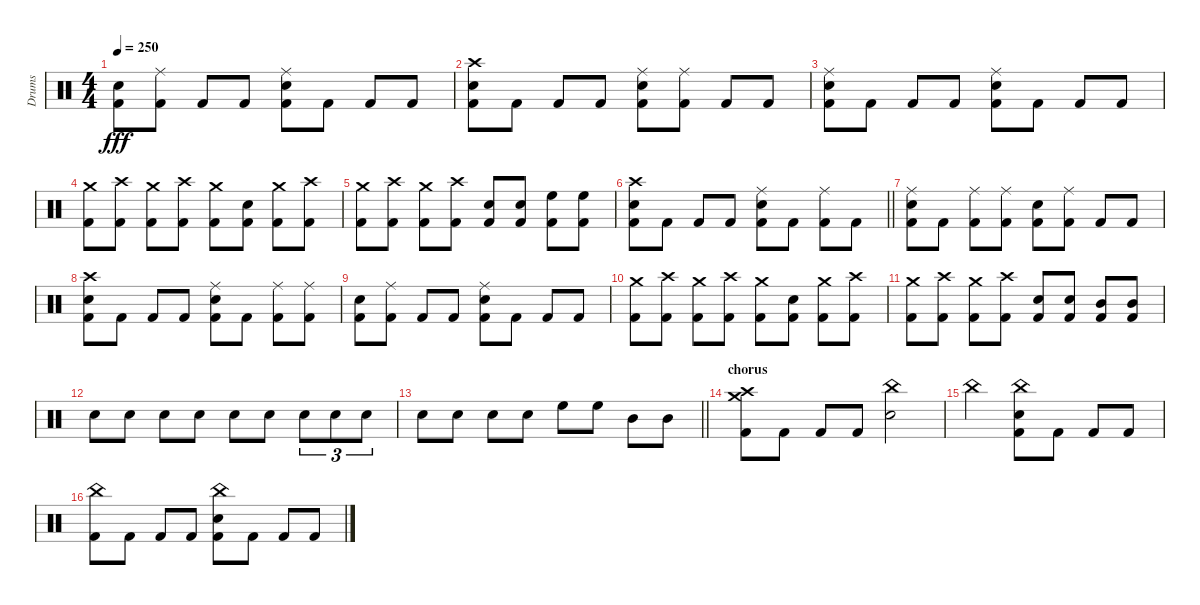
\track ("Drums" "Drums") {solo instrument percussion}
\staff {score}
\articulation defaults
\ts (4 4)
\tempo 250
\clef neutral
\ks c
("Snare (hit) 2" "Kick (hit) 2").8{dy fff} ("Ride (middle)" "Kick (hit) 2").8 "Kick (hit) 2".8 "Kick (hit) 2".8 ("Ride (middle)" "Snare (hit) 2" "Kick (hit) 2").8 "Kick (hit) 2".8 "Kick (hit) 2".8 "Kick (hit) 2".8 |
("Crash high (hit)" "Snare (hit) 2" "Kick (hit) 2").8 "Kick (hit) 2".8 "Kick (hit) 2".8 "Kick (hit) 2".8 ("Ride (middle)" "Snare (hit) 2" "Kick (hit) 2").8 ("Ride (middle)" "Kick (hit) 2").8 "Kick (hit) 2".8 "Kick (hit) 2".8 |
("Ride (middle)" "Snare (hit) 2" "Kick (hit) 2").8 "Kick (hit) 2".8 "Kick (hit) 2".8 "Kick (hit) 2".8 ("Ride (middle)" "Snare (hit) 2" "Kick (hit) 2").8 "Kick (hit) 2".8 "Kick (hit) 2".8 "Kick (hit) 2".8 |
("Crash medium (hit)" "Kick (hit) 2").8 ("Crash high (hit)" "Kick (hit) 2").8 ("Crash medium (hit)" "Kick (hit) 2").8 ("Crash high (hit)" "Kick (hit) 2").8 ("Crash medium (hit)" "Kick (hit) 2").8 ("Snare (hit) 2" "Kick (hit) 2").8 ("Crash medium (hit)" "Kick (hit) 2").8 ("Crash high (hit)" "Kick (hit) 2").8 |
("Crash medium (hit)" "Kick (hit) 2").8 ("Crash high (hit)" "Kick (hit) 2").8 ("Crash medium (hit)" "Kick (hit) 2").8 ("Crash high (hit)" "Kick (hit) 2").8 ("Snare (hit) 2" "Kick (hit) 2").8 ("Snare (hit) 2" "Kick (hit) 2").8 ("High Floor Tom (hit)" "Kick (hit) 2").8 ("High Floor Tom (hit)" "Kick (hit) 2").8 |
\barLineRight lightlight
("Crash high (hit)" "Snare (hit) 2" "Kick (hit) 2").8 "Kick (hit) 2".8 "Kick (hit) 2".8 "Kick (hit) 2".8 ("Ride (middle)" "Snare (hit) 2" "Kick (hit) 2").8 "Kick (hit) 2".8 ("Ride (middle)" "Kick (hit) 2").8 "Kick (hit) 2".8 |
("Ride (middle)" "Snare (hit) 2" "Kick (hit) 2").8 "Kick (hit) 2".8 ("Ride (middle)" "Kick (hit) 2").8 ("Ride (middle)" "Kick (hit) 2").8 ("Snare (hit) 2" "Kick (hit) 2").8 ("Ride (middle)" "Kick (hit) 2").8 "Kick (hit) 2".8 "Kick (hit) 2".8 |
("Crash high (hit)" "Snare (hit) 2" "Kick (hit) 2").8 "Kick (hit) 2".8 "Kick (hit) 2".8 "Kick (hit) 2".8 ("Ride (middle)" "Snare (hit) 2" "Kick (hit) 2").8 "Kick (hit) 2".8 ("Ride (middle)" "Kick (hit) 2").8 ("Ride (middle)" "Kick (hit) 2").8 |
("Snare (hit) 2" "Kick (hit) 2").8 ("Ride (middle)" "Kick (hit) 2").8 "Kick (hit) 2".8 "Kick (hit) 2".8 ("Ride (middle)" "Snare (hit) 2" "Kick (hit) 2").8 "Kick (hit) 2".8 "Kick (hit) 2".8 "Kick (hit) 2".8 |
("Crash medium (hit)" "Kick (hit) 2").8 ("Crash high (hit)" "Kick (hit) 2").8 ("Crash medium (hit)" "Kick (hit) 2").8 ("Crash high (hit)" "Kick (hit) 2").8 ("Crash medium (hit)" "Kick (hit) 2").8 ("Snare (hit) 2" "Kick (hit) 2").8 ("Crash medium (hit)" "Kick (hit) 2").8 ("Crash high (hit)" "Kick (hit) 2").8 |
("Crash medium (hit)" "Kick (hit) 2").8 ("Crash high (hit)" "Kick (hit) 2").8 ("Crash medium (hit)" "Kick (hit) 2").8 ("Crash high (hit)" "Kick (hit) 2").8 ("Snare (hit) 2" "Kick (hit) 2").8 ("Snare (hit) 2" "Kick (hit) 2").8 ("Mid Tom (hit)" "Kick (hit) 2").8 ("Mid Tom (hit)" "Kick (hit) 2").8 |
"Snare (hit) 2".8 "Snare (hit) 2".8 "Snare (hit) 2".8 "Snare (hit) 2".8 "Snare (hit) 2".8 "Snare (hit) 2".8 "Snare (hit) 2".8{tu (3 2)} "Snare (hit) 2".8{tu (3 2)} "Snare (hit) 2".8{tu (3 2)} |
\barLineRight lightlight "Snare (hit) 2".8 "Snare (hit) 2".8 "Snare (hit) 2".8 "Snare (hit) 2".8 "High Floor Tom (hit)".8 "High Floor Tom (hit)".8 "Mid Tom (hit)".8 "Mid Tom (hit)".8
|
\section ("" "chorus")
("Crash high (hit)" "Crash medium (hit)" "Kick (hit) 2").8 "Kick (hit) 2".8 "Kick (hit) 2".8 "Kick (hit) 2".8 ("China (hit)" "Snare (hit) 2").2 |
"China (hit)".2 ("China (hit)" "Snare (hit) 2" "Kick (hit) 2").8 "Kick (hit) 2".8 "Kick (hit) 2".8 "Kick (hit) 2".8 |
("China (hit)" "Kick (hit) 2").8 "Kick (hit) 2".8 "Kick (hit) 2".8 "Kick (hit) 2".8 ("China (hit)" "Snare (hit) 2" "Kick (hit) 2").8 "Kick (hit) 2".8 "Kick (hit) 2".8 "Kick (hit) 2".8
